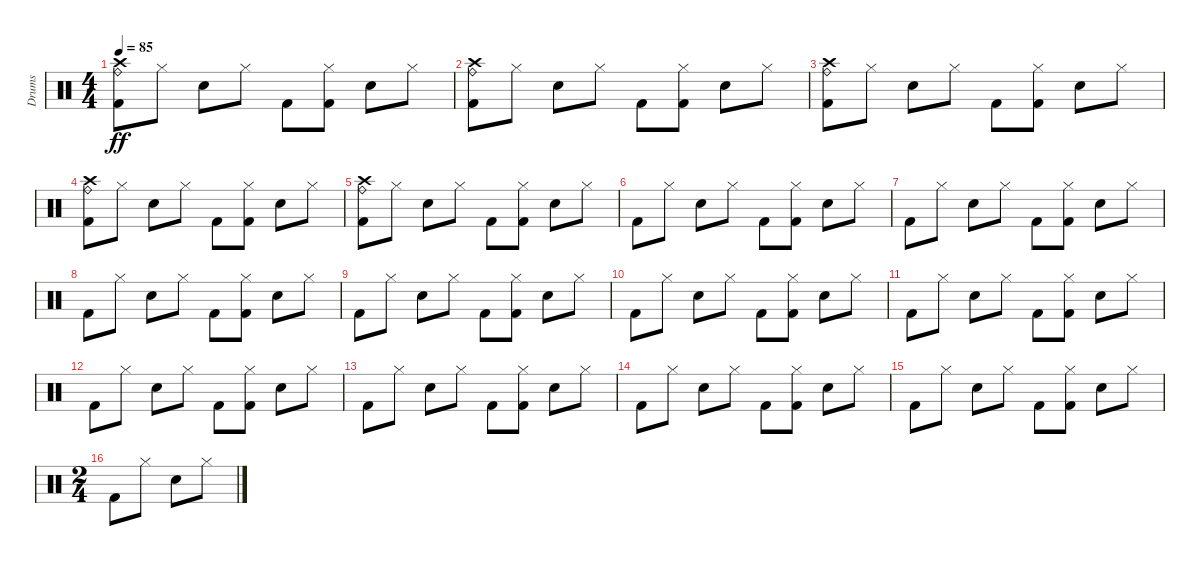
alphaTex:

\track ("Drums" "Drums") {instrument percussion}
\staff {score}
\articulation defaults
\ts (4 4)
\tempo 85
\clef neutral
\ks c
("Kick (hit) 2" "Crash high (hit)" "Ride (bell)").8{dy ff} "Hi-Hat (closed)".8 "Electric Snare (hit)".8 "Hi-Hat (closed)".8 "Kick (hit) 2".8 ("Kick (hit) 2" "Hi-Hat (closed)").8 "Electric Snare (hit)".8 "Hi-Hat (closed)".8 |
("Kick (hit) 2" "Crash high (hit)" "Ride (bell)").8 "Hi-Hat (closed)".8 "Electric Snare (hit)".8 "Hi-Hat (closed)".8 "Kick (hit) 2".8 ("Kick (hit) 2" "Hi-Hat (closed)").8 "Electric Snare (hit)".8 "Hi-Hat (closed)".8 |
("Kick (hit) 2" "Crash high (hit)" "Ride (bell)").8 "Hi-Hat (closed)".8 "Electric Snare (hit)".8 "Hi-Hat (closed)".8 "Kick (hit) 2".8 ("Kick (hit) 2" "Hi-Hat (closed)").8 "Electric Snare (hit)".8 "Hi-Hat (closed)".8 |
("Kick (hit) 2" "Crash high (hit)" "Ride (bell)").8 "Hi-Hat (closed)".8 "Electric Snare (hit)".8 "Hi-Hat (closed)".8 "Kick (hit) 2".8 ("Kick (hit) 2" "Hi-Hat (closed)").8 "Electric Snare (hit)".8 "Hi-Hat (closed)".8 |
("Kick (hit) 2" "Crash high (hit)" "Ride (bell)").8 "Hi-Hat (closed)".8 "Electric Snare (hit)".8 "Hi-Hat (closed)".8 "Kick (hit) 2".8 ("Kick (hit) 2" "Hi-Hat (closed)").8 "Electric Snare (hit)".8 "Hi-Hat (closed)".8 |
"Kick (hit) 2".8 "Hi-Hat (closed)".8 "Electric Snare (hit)".8 "Hi-Hat (closed)".8 "Kick (hit) 2".8 ("Kick (hit) 2" "Hi-Hat (closed)").8 "Electric Snare (hit)".8 "Hi-Hat (closed)".8 |
"Kick (hit) 2".8 "Hi-Hat (closed)".8 "Electric Snare (hit)".8 "Hi-Hat (closed)".8 "Kick (hit) 2".8 ("Kick (hit) 2" "Hi-Hat (closed)").8 "Electric Snare (hit)".8 "Hi-Hat (closed)".8 |
"Kick (hit) 2".8 "Hi-Hat (closed)".8 "Electric Snare (hit)".8 "Hi-Hat (closed)".8 "Kick (hit) 2".8 ("Kick (hit) 2" "Hi-Hat (closed)").8 "Electric Snare (hit)".8 "Hi-Hat (closed)".8 |
"Kick (hit) 2".8 "Hi-Hat (closed)".8 "Electric Snare (hit)".8 "Hi-Hat (closed)".8 "Kick (hit) 2".8 ("Kick (hit) 2" "Hi-Hat (closed)").8 "Electric Snare (hit)".8 "Hi-Hat (closed)".8 |
"Kick (hit) 2".8 "Hi-Hat (closed)".8 "Electric Snare (hit)".8 "Hi-Hat (closed)".8 "Kick (hit) 2".8 ("Kick (hit) 2" "Hi-Hat (closed)").8 "Electric Snare (hit)".8 "Hi-Hat (closed)".8 |
"Kick (hit) 2".8 "Hi-Hat (closed)".8 "Electric Snare (hit)".8 "Hi-Hat (closed)".8 "Kick (hit) 2".8 ("Kick (hit) 2" "Hi-Hat (closed)").8 "Electric Snare (hit)".8 "Hi-Hat (closed)".8 |
"Kick (hit) 2".8 "Hi-Hat (closed)".8 "Electric Snare (hit)".8 "Hi-Hat (closed)".8 "Kick (hit) 2".8 ("Kick (hit) 2" "Hi-Hat (closed)").8 "Electric Snare (hit)".8 "Hi-Hat (closed)".8 |
"Kick (hit) 2".8 "Hi-Hat (closed)".8 "Electric Snare (hit)".8 "Hi-Hat (closed)".8 "Kick (hit) 2".8 ("Kick (hit) 2" "Hi-Hat (closed)").8 "Electric Snare (hit)".8 "Hi-Hat (closed)".8 |
"Kick (hit) 2".8 "Hi-Hat (closed)".8 "Electric Snare (hit)".8 "Hi-Hat (closed)".8 "Kick (hit) 2".8 ("Kick (hit) 2" "Hi-Hat (closed)").8 "Electric Snare (hit)".8 "Hi-Hat (closed)".8 |
"Kick (hit) 2".8 "Hi-Hat (closed)".8 "Electric Snare (hit)".8 "Hi-Hat (closed)".8 "Kick (hit) 2".8 ("Kick (hit) 2" "Hi-Hat (closed)").8 "Electric Snare (hit)".8 "Hi-Hat (closed)".8 |
\ts (2 4)
"Kick (hit) 2".8 "Hi-Hat (closed)".8 "Electric Snare (hit)".8 "Hi-Hat (closed)".8
